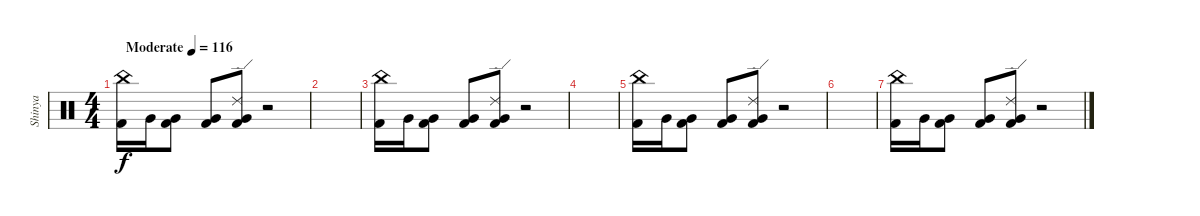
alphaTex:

\track ("Shinya" "Shinya") {instrument percussion}
\staff {score}
\articulation defaults
\ts (4 4)
\tempo (116 "Moderate")
\clef neutral
\ks c
("China (hit)" "Kick (hit) 2").16{dy f} "Very Low Tom (hit)".16 ("Very Low Tom (hit)" "Kick (hit) 2").8 ("Very Low Tom (hit)" "Kick (hit) 2").8 ("Ride (edge) 2" "Very Low Tom (hit)" "Kick (hit) 2").8 r.2 |
|
("China (hit)" "Kick (hit) 2").16 "Very Low Tom (hit)".16 ("Very Low Tom (hit)" "Kick (hit) 2").8 ("Very Low Tom (hit)" "Kick (hit) 2").8 ("Ride (edge) 2" "Very Low Tom (hit)" "Kick (hit) 2").8 r.2 |
|
("China (hit)" "Kick (hit) 2").16 "Very Low Tom (hit)".16 ("Very Low Tom (hit)" "Kick (hit) 2").8 ("Very Low Tom (hit)" "Kick (hit) 2").8 ("Ride (edge) 2" "Very Low Tom (hit)" "Kick (hit) 2").8 r.2 |
|
("China (hit)" "Kick (hit) 2").16 "Very Low Tom (hit)".16 ("Very Low Tom (hit)" "Kick (hit) 2").8 ("Very Low Tom (hit)" "Kick (hit) 2").8 ("Ride (edge) 2" "Very Low Tom (hit)" "Kick (hit) 2").8 r.2
